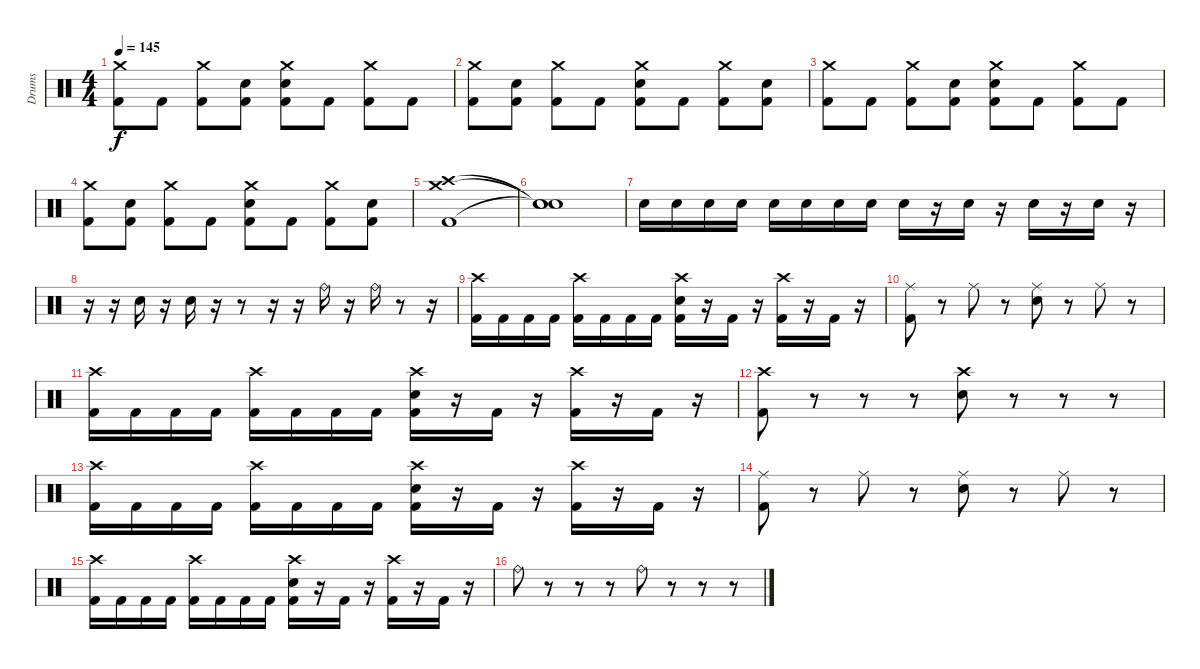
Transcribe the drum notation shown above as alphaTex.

\track ("Drums" "Drums") {instrument percussion}
\staff {score}
\articulation defaults
\ts (4 4)
\tempo 145
\clef neutral
\ks c
("Crash medium (hit)" "Kick (hit) 2").8{dy f} "Kick (hit) 2".8 ("Crash medium (hit)" "Kick (hit) 2").8 ("Snare (hit) 2" "Kick (hit) 2").8 ("Crash medium (hit)" "Snare (hit) 2" "Kick (hit) 2").8 "Kick (hit) 2".8 ("Crash medium (hit)" "Kick (hit) 2").8 "Kick (hit) 2".8 |
("Crash medium (hit)" "Kick (hit) 2").8 ("Snare (hit) 2" "Kick (hit) 2").8 ("Crash medium (hit)" "Kick (hit) 2").8 "Kick (hit) 2".8 ("Crash medium (hit)" "Snare (hit) 2" "Kick (hit) 2").8 "Kick (hit) 2".8 ("Crash medium (hit)" "Kick (hit) 2").8 ("Snare (hit) 2" "Kick (hit) 2").8 |
("Crash medium (hit)" "Kick (hit) 2").8 "Kick (hit) 2".8 ("Crash medium (hit)" "Kick (hit) 2").8 ("Snare (hit) 2" "Kick (hit) 2").8 ("Crash medium (hit)" "Snare (hit) 2" "Kick (hit) 2").8 "Kick (hit) 2".8 ("Crash medium (hit)" "Kick (hit) 2").8 "Kick (hit) 2".8 |
("Crash medium (hit)" "Kick (hit) 2").8 ("Snare (hit) 2" "Kick (hit) 2").8 ("Crash medium (hit)" "Kick (hit) 2").8 "Kick (hit) 2".8 ("Crash medium (hit)" "Snare (hit) 2" "Kick (hit) 2").8 "Kick (hit) 2".8 ("Crash medium (hit)" "Kick (hit) 2").8 ("Snare (hit) 2" "Kick (hit) 2").8 |
("Crash medium (hit)" "Crash high (hit)" "Kick (hit) 2").1 |
("Snare (hit)"{t} "Snare (hit)"{t} "Snare (hit)"{t}).1 |
"Snare (hit) 2".16 "Snare (hit) 2".16 "Snare (hit) 2".16 "Snare (hit) 2".16 "Snare (hit) 2".16 "Snare (hit) 2".16 "Snare (hit) 2".16 "Snare (hit) 2".16 "Snare (hit) 2".16 r.16 "Snare (hit) 2".16 r.16 "Snare (hit) 2".16 r.16 "Snare (hit) 2".16 r.16 |
r.16 r.16 "Snare (hit) 2".16 r.16 "Snare (hit) 2".16 r.16 r.8 r.16 r.16 "Ride (bell)".16 r.16 "Ride (bell)".16 r.8 r.16 |
("Crash high (hit)" "Kick (hit) 2").16 "Kick (hit) 2".16 "Kick (hit) 2".16 "Kick (hit) 2".16 ("Crash high (hit)" "Kick (hit) 2").16 "Kick (hit) 2".16 "Kick (hit) 2".16 "Kick (hit) 2".16 ("Crash high (hit)" "Snare (hit) 2" "Kick (hit) 2").16 r.16 "Kick (hit) 2".16 r.16 ("Crash high (hit)" "Kick (hit) 2").16 r.16 "Kick (hit) 2".16 r.16 |
("Ride (middle)" "Kick (hit) 2").8 r.8 "Ride (middle)".8 r.8 ("Ride (middle)" "Snare (hit) 2").8 r.8 "Ride (middle)".8 r.8 |
("Crash high (hit)" "Kick (hit) 2").16 "Kick (hit) 2".16 "Kick (hit) 2".16 "Kick (hit) 2".16 ("Crash high (hit)" "Kick (hit) 2").16 "Kick (hit) 2".16 "Kick (hit) 2".16 "Kick (hit) 2".16 ("Crash high (hit)" "Snare (hit) 2" "Kick (hit) 2").16 r.16 "Kick (hit) 2".16 r.16 ("Crash high (hit)" "Kick (hit) 2").16 r.16 "Kick (hit) 2".16 r.16 |
("Crash high (hit)" "Kick (hit) 2").8 r.8 r.8 r.8 ("Crash high (hit)" "Snare (hit) 2").8 r.8 r.8 r.8 |
("Crash high (hit)" "Kick (hit) 2").16 "Kick (hit) 2".16 "Kick (hit) 2".16 "Kick (hit) 2".16 ("Crash high (hit)" "Kick (hit) 2").16 "Kick (hit) 2".16 "Kick (hit) 2".16 "Kick (hit) 2".16 ("Crash high (hit)" "Snare (hit) 2" "Kick (hit) 2").16 r.16 "Kick (hit) 2".16 r.16 ("Crash high (hit)" "Kick (hit) 2").16 r.16 "Kick (hit) 2".16 r.16 |
("Ride (middle)" "Kick (hit) 2").8 r.8 "Ride (middle)".8 r.8 ("Ride (middle)" "Snare (hit) 2").8 r.8 "Ride (middle)".8 r.8 |
("Crash high (hit)" "Kick (hit) 2").16 "Kick (hit) 2".16 "Kick (hit) 2".16 "Kick (hit) 2".16 ("Crash high (hit)" "Kick (hit) 2").16 "Kick (hit) 2".16 "Kick (hit) 2".16 "Kick (hit) 2".16 ("Crash high (hit)" "Snare (hit) 2" "Kick (hit) 2").16 r.16 "Kick (hit) 2".16 r.16 ("Crash high (hit)" "Kick (hit) 2").16 r.16 "Kick (hit) 2".16 r.16 |
"Ride (bell)".8 r.8 r.8 r.8 "Ride (bell)".8 r.8 r.8 r.8
